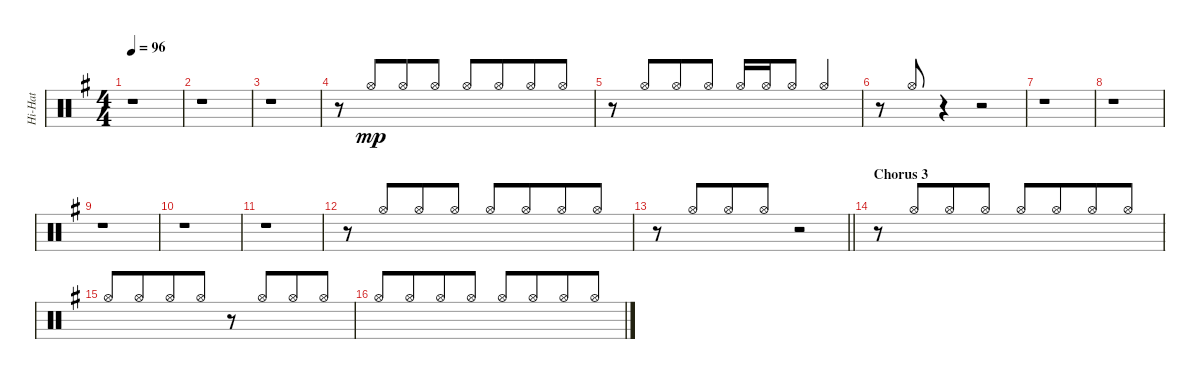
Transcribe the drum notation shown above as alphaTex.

\track ("Hi-Hat" "Hi-Hat") {instrument percussion}
\staff {score}
\articulation defaults
\ts (4 4)
\tempo 96
\clef neutral
\ks g
r.1{dy mp} |
r.1 |
r.1 |
r.8 "Hi-Hat (open)".8{beam Up beam merge} "Hi-Hat (open)".8{beam Up} "Hi-Hat (open)".8{beam Up} "Hi-Hat (open)".8{beam Up} "Hi-Hat (open)".8{beam Up beam merge} "Hi-Hat (open)".8{beam Up} "Hi-Hat (open)".8{beam Up} |
r.8 "Hi-Hat (open)".8{beam Up beam merge} "Hi-Hat (open)".8{beam Up} "Hi-Hat (open)".8{beam Up} "Hi-Hat (open)".16{beam Up} "Hi-Hat (open)".16{beam Up} "Hi-Hat (open)".8{beam Up} "Hi-Hat (open)".4{beam Up} |
r.8 "Hi-Hat (open)".8{beam Up beam merge} r.4 r.2 |
r.1 |
r.1 |
r.1 |
r.1 |
r.1 |
r.8 "Hi-Hat (open)".8{beam Up beam merge} "Hi-Hat (open)".8{beam Up} "Hi-Hat (open)".8{beam Up} "Hi-Hat (open)".8{beam Up} "Hi-Hat (open)".8{beam Up beam merge} "Hi-Hat (open)".8{beam Up} "Hi-Hat (open)".8{beam Up} |
\barLineRight lightlight
r.8 "Hi-Hat (open)".8{beam Up beam merge} "Hi-Hat (open)".8{beam Up} "Hi-Hat (open)".8{beam Up} r.2 |
\section ("" "Chorus 3")
r.8 "Hi-Hat (open)".8{beam Up beam merge} "Hi-Hat (open)".8{beam Up} "Hi-Hat (open)".8{beam Up} "Hi-Hat (open)".8{beam Up} "Hi-Hat (open)".8{beam Up beam merge} "Hi-Hat (open)".8{beam Up} "Hi-Hat (open)".8{beam Up} |
"Hi-Hat (open)".8{beam Up} "Hi-Hat (open)".8{beam Up beam merge} "Hi-Hat (open)".8{beam Up} "Hi-Hat (open)".8{beam Up} r.8 "Hi-Hat (open)".8{beam Up beam merge} "Hi-Hat (open)".8{beam Up} "Hi-Hat (open)".8{beam Up} |
"Hi-Hat (open)".8{beam Up} "Hi-Hat (open)".8{beam Up beam merge} "Hi-Hat (open)".8{beam Up} "Hi-Hat (open)".8{beam Up} "Hi-Hat (open)".8{beam Up} "Hi-Hat (open)".8{beam Up beam merge} "Hi-Hat (open)".8{beam Up} "Hi-Hat (open)".8{beam Up}
